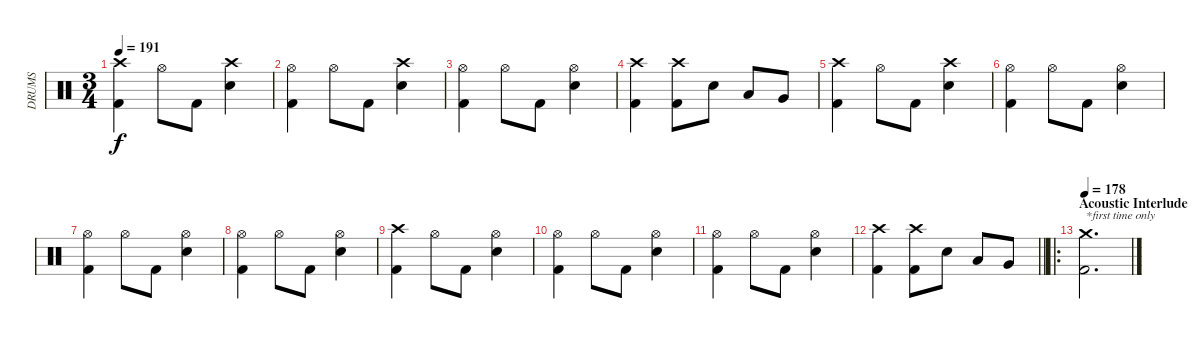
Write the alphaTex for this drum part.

\track ("DRUMS" "DRUMS") {instrument percussion}
\staff {score}
\articulation defaults
\ts (3 4)
\tempo 191
\clef neutral
\ks c
("Crash high (hit)" "Kick (hit) 2").4{dy f} "Hi-Hat (open)".8 "Kick (hit) 2".8 ("Crash high (hit)" "Snare (hit) 2").4 |
("Hi-Hat (open)" "Kick (hit) 2").4 "Hi-Hat (open)".8 "Kick (hit) 2".8 ("Crash high (hit)" "Snare (hit) 2").4 |
("Hi-Hat (open)" "Kick (hit) 2").4 "Hi-Hat (open)".8 "Kick (hit) 2".8 ("Hi-Hat (open)" "Snare (hit) 2").4 |
("Crash high (hit)" "Kick (hit) 2").4 ("Crash high (hit)" "Kick (hit) 2").8 "Snare (hit) 2".8 "Low Tom (hit)".8 "Very Low Tom (hit)".8 |
("Crash high (hit)" "Kick (hit) 2").4 "Hi-Hat (open)".8 "Kick (hit) 2".8 ("Crash high (hit)" "Snare (hit) 2").4 |
("Hi-Hat (open)" "Kick (hit) 2").4 "Hi-Hat (open)".8 "Kick (hit) 2".8 ("Hi-Hat (open)" "Snare (hit) 2").4 |
("Hi-Hat (open)" "Kick (hit) 2").4 "Hi-Hat (open)".8 "Kick (hit) 2".8 ("Hi-Hat (open)" "Snare (hit) 2").4 |
("Hi-Hat (open)" "Kick (hit) 2").4 "Hi-Hat (open)".8 "Kick (hit) 2".8 ("Hi-Hat (open)" "Snare (hit) 2").4 |
("Crash high (hit)" "Kick (hit) 2").4 "Hi-Hat (open)".8 "Kick (hit) 2".8 ("Hi-Hat (open)" "Snare (hit) 2").4 |
("Hi-Hat (open)" "Kick (hit) 2").4 "Hi-Hat (open)".8 "Kick (hit) 2".8 ("Hi-Hat (open)" "Snare (hit) 2").4 |
("Hi-Hat (open)" "Kick (hit) 2").4 "Hi-Hat (open)".8 "Kick (hit) 2".8 ("Hi-Hat (open)" "Snare (hit) 2").4 |
\barLineRight lightlight
("Crash high (hit)" "Kick (hit) 2").4 ("Crash high (hit)" "Kick (hit) 2").8 "Snare (hit) 2".8 "Low Tom (hit)".8 "Very Low Tom (hit)".8 |
\ro
\section ("" "Acoustic Interlude")
\tempo 178
("Crash medium (hit)" "Kick (hit) 2").2{d txt "*first time only"}
